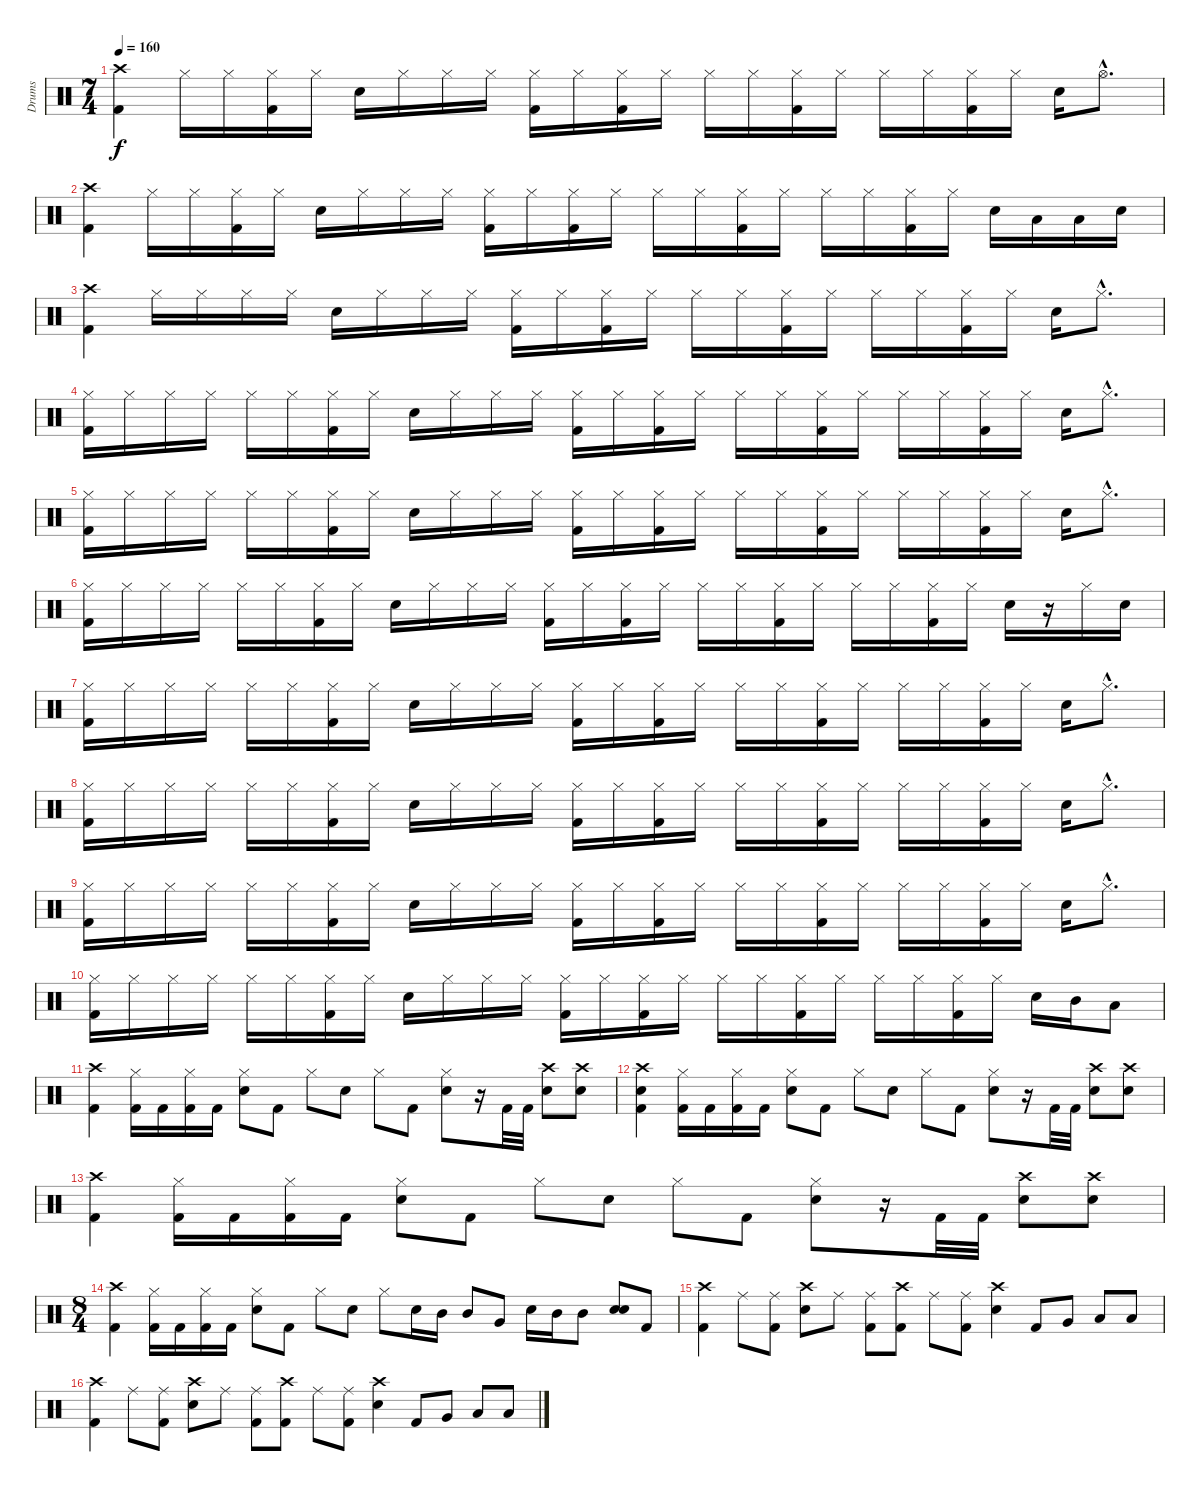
\track ("Drums" "Drums") {instrument percussion}
\staff {score}
\articulation defaults
\ts (7 4)
\tempo 160
\clef neutral
\ks c
("Crash high (hit)" "Kick (hit) 2").4{dy f} "Hi-Hat (closed)".16 "Hi-Hat (closed)".16 ("Hi-Hat (closed)" "Kick (hit) 2").16 "Hi-Hat (closed)".16 "Snare (hit) 2".16 "Hi-Hat (closed)".16 "Hi-Hat (closed)".16 "Hi-Hat (closed)".16 ("Hi-Hat (closed)" "Kick (hit) 2").16 "Hi-Hat (closed)".16 ("Hi-Hat (closed)" "Kick (hit) 2").16 "Hi-Hat (closed)".16 "Hi-Hat (closed)".16 "Hi-Hat (closed)".16 ("Hi-Hat (closed)" "Kick (hit) 2").16 "Hi-Hat (closed)".16 "Hi-Hat (closed)".16 "Hi-Hat (closed)".16 ("Hi-Hat (closed)" "Kick (hit) 2").16 "Hi-Hat (closed)".16 "Snare (hit) 2".16 "Hi-Hat (open)"{hac}.8{d} |
("Crash high (hit)" "Kick (hit) 2").4 "Hi-Hat (closed)".16 "Hi-Hat (closed)".16 ("Hi-Hat (closed)" "Kick (hit) 2").16 "Hi-Hat (closed)".16 "Snare (hit) 2".16 "Hi-Hat (closed)".16 "Hi-Hat (closed)".16 "Hi-Hat (closed)".16 ("Hi-Hat (closed)" "Kick (hit) 2").16 "Hi-Hat (closed)".16 ("Hi-Hat (closed)" "Kick (hit) 2").16 "Hi-Hat (closed)".16 "Hi-Hat (closed)".16 "Hi-Hat (closed)".16 ("Hi-Hat (closed)" "Kick (hit) 2").16 "Hi-Hat (closed)".16 "Hi-Hat (closed)".16 "Hi-Hat (closed)".16 ("Hi-Hat (closed)" "Kick (hit) 2").16 "Hi-Hat (closed)".16 "Snare (hit) 2".16 "Low Tom (hit)".16 "Low Tom (hit)".16 "Snare (hit) 2".16 |
("Crash high (hit)" "Kick (hit) 2").4 "Hi-Hat (closed)".16 "Hi-Hat (closed)".16 "Hi-Hat (closed)".16 "Hi-Hat (closed)".16 "Snare (hit) 2".16 "Hi-Hat (closed)".16 "Hi-Hat (closed)".16 "Hi-Hat (closed)".16 ("Hi-Hat (closed)" "Kick (hit) 2").16 "Hi-Hat (closed)".16 ("Hi-Hat (closed)" "Kick (hit) 2").16 "Hi-Hat (closed)".16 "Hi-Hat (closed)".16 "Hi-Hat (closed)".16 ("Hi-Hat (closed)" "Kick (hit) 2").16 "Hi-Hat (closed)".16 "Hi-Hat (closed)".16 "Hi-Hat (closed)".16 ("Hi-Hat (closed)" "Kick (hit) 2").16 "Hi-Hat (closed)".16 "Snare (hit) 2".16 "Hi-Hat (closed)"{hac}.8{d} |
("Hi-Hat (closed)" "Kick (hit) 2").16 "Hi-Hat (closed)".16 "Hi-Hat (closed)".16 "Hi-Hat (closed)".16 "Hi-Hat (closed)".16 "Hi-Hat (closed)".16 ("Hi-Hat (closed)" "Kick (hit) 2").16 "Hi-Hat (closed)".16 "Snare (hit) 2".16 "Hi-Hat (closed)".16 "Hi-Hat (closed)".16 "Hi-Hat (closed)".16 ("Hi-Hat (closed)" "Kick (hit) 2").16 "Hi-Hat (closed)".16 ("Hi-Hat (closed)" "Kick (hit) 2").16 "Hi-Hat (closed)".16 "Hi-Hat (closed)".16 "Hi-Hat (closed)".16 ("Hi-Hat (closed)" "Kick (hit) 2").16 "Hi-Hat (closed)".16 "Hi-Hat (closed)".16 "Hi-Hat (closed)".16 ("Hi-Hat (closed)" "Kick (hit) 2").16 "Hi-Hat (closed)".16 "Snare (hit) 2".16 "Hi-Hat (closed)"{hac}.8{d} |
("Hi-Hat (closed)" "Kick (hit) 2").16 "Hi-Hat (closed)".16 "Hi-Hat (closed)".16 "Hi-Hat (closed)".16 "Hi-Hat (closed)".16 "Hi-Hat (closed)".16 ("Hi-Hat (closed)" "Kick (hit) 2").16 "Hi-Hat (closed)".16 "Snare (hit) 2".16 "Hi-Hat (closed)".16 "Hi-Hat (closed)".16 "Hi-Hat (closed)".16 ("Hi-Hat (closed)" "Kick (hit) 2").16 "Hi-Hat (closed)".16 ("Hi-Hat (closed)" "Kick (hit) 2").16 "Hi-Hat (closed)".16 "Hi-Hat (closed)".16 "Hi-Hat (closed)".16 ("Hi-Hat (closed)" "Kick (hit) 2").16 "Hi-Hat (closed)".16 "Hi-Hat (closed)".16 "Hi-Hat (closed)".16 ("Hi-Hat (closed)" "Kick (hit) 2").16 "Hi-Hat (closed)".16 "Snare (hit) 2".16 "Hi-Hat (closed)"{hac}.8{d} |
("Hi-Hat (closed)" "Kick (hit) 2").16 "Hi-Hat (closed)".16 "Hi-Hat (closed)".16 "Hi-Hat (closed)".16 "Hi-Hat (closed)".16 "Hi-Hat (closed)".16 ("Hi-Hat (closed)" "Kick (hit) 2").16 "Hi-Hat (closed)".16 "Snare (hit) 2".16 "Hi-Hat (closed)".16 "Hi-Hat (closed)".16 "Hi-Hat (closed)".16 ("Hi-Hat (closed)" "Kick (hit) 2").16 "Hi-Hat (closed)".16 ("Hi-Hat (closed)" "Kick (hit) 2").16 "Hi-Hat (closed)".16 "Hi-Hat (closed)".16 "Hi-Hat (closed)".16 ("Hi-Hat (closed)" "Kick (hit) 2").16 "Hi-Hat (closed)".16 "Hi-Hat (closed)".16 "Hi-Hat (closed)".16 ("Hi-Hat (closed)" "Kick (hit) 2").16 "Hi-Hat (closed)".16 "Snare (hit) 2".16 r.16 "Hi-Hat (closed)".16 "Snare (hit) 2".16 |
("Hi-Hat (closed)" "Kick (hit) 2").16 "Hi-Hat (closed)".16 "Hi-Hat (closed)".16 "Hi-Hat (closed)".16 "Hi-Hat (closed)".16 "Hi-Hat (closed)".16 ("Hi-Hat (closed)" "Kick (hit) 2").16 "Hi-Hat (closed)".16 "Snare (hit) 2".16 "Hi-Hat (closed)".16 "Hi-Hat (closed)".16 "Hi-Hat (closed)".16 ("Hi-Hat (closed)" "Kick (hit) 2").16 "Hi-Hat (closed)".16 ("Hi-Hat (closed)" "Kick (hit) 2").16 "Hi-Hat (closed)".16 "Hi-Hat (closed)".16 "Hi-Hat (closed)".16 ("Hi-Hat (closed)" "Kick (hit) 2").16 "Hi-Hat (closed)".16 "Hi-Hat (closed)".16 "Hi-Hat (closed)".16 ("Hi-Hat (closed)" "Kick (hit) 2").16 "Hi-Hat (closed)".16 "Snare (hit) 2".16 "Hi-Hat (closed)"{hac}.8{d} |
("Hi-Hat (closed)" "Kick (hit) 2").16 "Hi-Hat (closed)".16 "Hi-Hat (closed)".16 "Hi-Hat (closed)".16 "Hi-Hat (closed)".16 "Hi-Hat (closed)".16 ("Hi-Hat (closed)" "Kick (hit) 2").16 "Hi-Hat (closed)".16 "Snare (hit) 2".16 "Hi-Hat (closed)".16 "Hi-Hat (closed)".16 "Hi-Hat (closed)".16 ("Hi-Hat (closed)" "Kick (hit) 2").16 "Hi-Hat (closed)".16 ("Hi-Hat (closed)" "Kick (hit) 2").16 "Hi-Hat (closed)".16 "Hi-Hat (closed)".16 "Hi-Hat (closed)".16 ("Hi-Hat (closed)" "Kick (hit) 2").16 "Hi-Hat (closed)".16 "Hi-Hat (closed)".16 "Hi-Hat (closed)".16 ("Hi-Hat (closed)" "Kick (hit) 2").16 "Hi-Hat (closed)".16 "Snare (hit) 2".16 "Hi-Hat (closed)"{hac}.8{d} |
("Hi-Hat (closed)" "Kick (hit) 2").16 "Hi-Hat (closed)".16 "Hi-Hat (closed)".16 "Hi-Hat (closed)".16 "Hi-Hat (closed)".16 "Hi-Hat (closed)".16 ("Hi-Hat (closed)" "Kick (hit) 2").16 "Hi-Hat (closed)".16 "Snare (hit) 2".16 "Hi-Hat (closed)".16 "Hi-Hat (closed)".16 "Hi-Hat (closed)".16 ("Hi-Hat (closed)" "Kick (hit) 2").16 "Hi-Hat (closed)".16 ("Hi-Hat (closed)" "Kick (hit) 2").16 "Hi-Hat (closed)".16 "Hi-Hat (closed)".16 "Hi-Hat (closed)".16 ("Hi-Hat (closed)" "Kick (hit) 2").16 "Hi-Hat (closed)".16 "Hi-Hat (closed)".16 "Hi-Hat (closed)".16 ("Hi-Hat (closed)" "Kick (hit) 2").16 "Hi-Hat (closed)".16 "Snare (hit) 2".16 "Hi-Hat (closed)"{hac}.8{d} |
("Hi-Hat (closed)" "Kick (hit) 2").16 "Hi-Hat (closed)".16 "Hi-Hat (closed)".16 "Hi-Hat (closed)".16 "Hi-Hat (closed)".16 "Hi-Hat (closed)".16 ("Hi-Hat (closed)" "Kick (hit) 2").16 "Hi-Hat (closed)".16 "Snare (hit) 2".16 "Hi-Hat (closed)".16 "Hi-Hat (closed)".16 "Hi-Hat (closed)".16 ("Hi-Hat (closed)" "Kick (hit) 2").16 "Hi-Hat (closed)".16 ("Hi-Hat (closed)" "Kick (hit) 2").16 "Hi-Hat (closed)".16 "Hi-Hat (closed)".16 "Hi-Hat (closed)".16 ("Hi-Hat (closed)" "Kick (hit) 2").16 "Hi-Hat (closed)".16 "Hi-Hat (closed)".16 "Hi-Hat (closed)".16 ("Hi-Hat (closed)" "Kick (hit) 2").16 "Hi-Hat (closed)".16 "Snare (hit) 2".16 "Mid Tom (hit)".16 "Low Tom (hit)".8 |
("Crash high (hit)" "Kick (hit) 2").4 ("Hi-Hat (closed)" "Kick (hit) 2").16 "Kick (hit) 2".16 ("Hi-Hat (closed)" "Kick (hit) 2").16 "Kick (hit) 2".16 ("Hi-Hat (closed)" "Snare (hit) 2").8 "Kick (hit) 2".8 "Hi-Hat (closed)".8 "Snare (hit) 2".8 "Hi-Hat (closed)".8 "Kick (hit) 2".8 ("Hi-Hat (closed)" "Snare (hit) 2").8 r.16 "Kick (hit) 2".32 "Kick (hit) 2".32 ("Crash high (hit)" "Snare (hit) 2").8 ("Crash high (hit)" "Snare (hit) 2").8 |
("Crash high (hit)" "Snare (hit) 2" "Kick (hit) 2").4 ("Hi-Hat (closed)" "Kick (hit) 2").16 "Kick (hit) 2".16 ("Hi-Hat (closed)" "Kick (hit) 2").16 "Kick (hit) 2".16 ("Hi-Hat (closed)" "Snare (hit) 2").8 "Kick (hit) 2".8 "Hi-Hat (closed)".8 "Snare (hit) 2".8 "Hi-Hat (closed)".8 "Kick (hit) 2".8 ("Hi-Hat (closed)" "Snare (hit) 2").8 r.16 "Kick (hit) 2".32 "Kick (hit) 2".32 ("Crash high (hit)" "Snare (hit) 2").8 ("Crash high (hit)" "Snare (hit) 2").8 |
("Crash high (hit)" "Kick (hit) 2").4 ("Hi-Hat (closed)" "Kick (hit) 2").16 "Kick (hit) 2".16 ("Hi-Hat (closed)" "Kick (hit) 2").16 "Kick (hit) 2".16 ("Hi-Hat (closed)" "Snare (hit) 2").8 "Kick (hit) 2".8 "Hi-Hat (closed)".8 "Snare (hit) 2".8 "Hi-Hat (closed)".8 "Kick (hit) 2".8 ("Hi-Hat (closed)" "Snare (hit) 2").8 r.16 "Kick (hit) 2".32 "Kick (hit) 2".32 ("Crash high (hit)" "Snare (hit) 2").8 ("Crash high (hit)" "Snare (hit) 2").8 |
\ts (8 4)
("Crash high (hit)" "Kick (hit) 2").4 ("Hi-Hat (closed)" "Kick (hit) 2").16 "Kick (hit) 2".16 ("Hi-Hat (closed)" "Kick (hit) 2").16 "Kick (hit) 2".16 ("Hi-Hat (closed)" "Snare (hit) 2").8 "Kick (hit) 2".8 "Hi-Hat (closed)".8 "Snare (hit) 2".8 "Hi-Hat (closed)".8 "Snare (hit) 2".16 "Mid Tom (hit)".16 "Mid Tom (hit)".8 "Very Low Tom (hit)".8 "Snare (hit) 2".16 "Mid Tom (hit)".16 "Mid Tom (hit)".8 ("Snare (hit) 2" "Snare (hit) 2").8 "Kick (hit) 2".8 |
("Crash high (hit)" "Kick (hit) 2").4 "Ride (middle)".8 ("Ride (middle)" "Kick (hit) 2").8 ("Crash high (hit)" "Snare (hit) 2").8 "Ride (middle)".8 ("Ride (middle)" "Kick (hit) 2").8 ("Crash high (hit)" "Kick (hit) 2").8 "Ride (middle)".8 ("Ride (middle)" "Kick (hit) 2").8 ("Crash high (hit)" "Snare (hit) 2").4 "Kick (hit) 2".8 "Very Low Tom (hit)".8 "Low Floor Tom (hit)".8 "Low Floor Tom (hit)".8 |
("Crash high (hit)" "Kick (hit) 2").4 "Ride (middle)".8 ("Ride (middle)" "Kick (hit) 2").8 ("Crash high (hit)" "Snare (hit) 2").8 "Ride (middle)".8 ("Ride (middle)" "Kick (hit) 2").8 ("Crash high (hit)" "Kick (hit) 2").8 "Ride (middle)".8 ("Ride (middle)" "Kick (hit) 2").8 ("Crash high (hit)" "Snare (hit) 2").4 "Kick (hit) 2".8 "Very Low Tom (hit)".8 "Low Floor Tom (hit)".8 "Low Floor Tom (hit)".8
